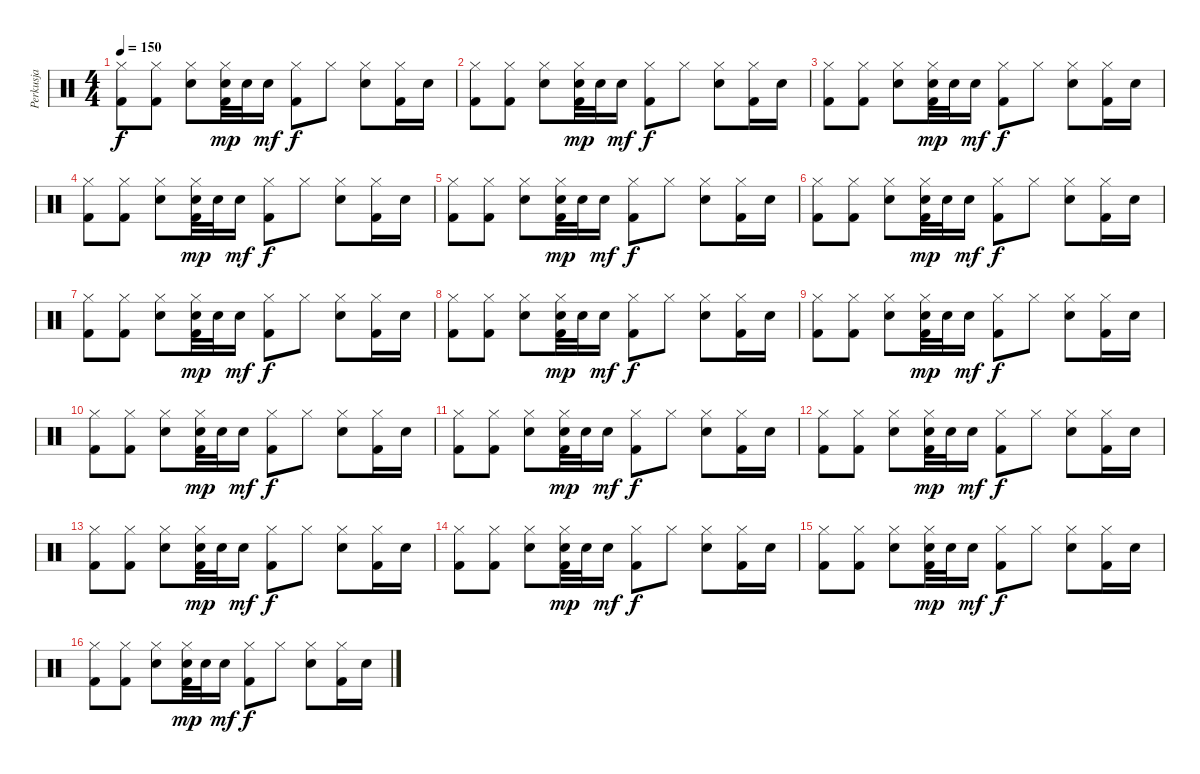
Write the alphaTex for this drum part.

\track ("Perkusja" "Perkusja") {instrument percussion}
\staff {score}
\articulation defaults
\ts (4 4)
\tempo 150
\clef neutral
\ks c
("Hi-Hat (closed)" "Kick (hit) 2").8{dy f} ("Hi-Hat (closed)" "Kick (hit) 2").8 ("Hi-Hat (closed)" "Electric Snare (hit)").8 ("Hi-Hat (closed)" "Electric Snare (hit)" "Kick (hit) 2").32{dy mp} "Electric Snare (hit)".32 "Electric Snare (hit)".16{dy mf} ("Hi-Hat (closed)" "Kick (hit) 2").8{dy f} "Hi-Hat (closed)".8 ("Hi-Hat (closed)" "Electric Snare (hit)").8 ("Hi-Hat (closed)" "Kick (hit) 2").16 "Electric Snare (hit)".16 |
("Hi-Hat (closed)" "Kick (hit) 2").8 ("Hi-Hat (closed)" "Kick (hit) 2").8 ("Hi-Hat (closed)" "Electric Snare (hit)").8 ("Hi-Hat (closed)" "Electric Snare (hit)" "Kick (hit) 2").32{dy mp} "Electric Snare (hit)".32 "Electric Snare (hit)".16{dy mf} ("Hi-Hat (closed)" "Kick (hit) 2").8{dy f} "Hi-Hat (closed)".8 ("Hi-Hat (closed)" "Electric Snare (hit)").8 ("Hi-Hat (closed)" "Kick (hit) 2").16 "Electric Snare (hit)".16 |
("Hi-Hat (closed)" "Kick (hit) 2").8 ("Hi-Hat (closed)" "Kick (hit) 2").8 ("Hi-Hat (closed)" "Electric Snare (hit)").8 ("Hi-Hat (closed)" "Electric Snare (hit)" "Kick (hit) 2").32{dy mp} "Electric Snare (hit)".32 "Electric Snare (hit)".16{dy mf} ("Hi-Hat (closed)" "Kick (hit) 2").8{dy f} "Hi-Hat (closed)".8 ("Hi-Hat (closed)" "Electric Snare (hit)").8 ("Hi-Hat (closed)" "Kick (hit) 2").16 "Electric Snare (hit)".16 |
("Hi-Hat (closed)" "Kick (hit) 2").8 ("Hi-Hat (closed)" "Kick (hit) 2").8 ("Hi-Hat (closed)" "Electric Snare (hit)").8 ("Hi-Hat (closed)" "Electric Snare (hit)" "Kick (hit) 2").32{dy mp} "Electric Snare (hit)".32 "Electric Snare (hit)".16{dy mf} ("Hi-Hat (closed)" "Kick (hit) 2").8{dy f} "Hi-Hat (closed)".8 ("Hi-Hat (closed)" "Electric Snare (hit)").8 ("Hi-Hat (closed)" "Kick (hit) 2").16 "Electric Snare (hit)".16 |
("Hi-Hat (closed)" "Kick (hit) 2").8 ("Hi-Hat (closed)" "Kick (hit) 2").8 ("Hi-Hat (closed)" "Electric Snare (hit)").8 ("Hi-Hat (closed)" "Electric Snare (hit)" "Kick (hit) 2").32{dy mp} "Electric Snare (hit)".32 "Electric Snare (hit)".16{dy mf} ("Hi-Hat (closed)" "Kick (hit) 2").8{dy f} "Hi-Hat (closed)".8 ("Hi-Hat (closed)" "Electric Snare (hit)").8 ("Hi-Hat (closed)" "Kick (hit) 2").16 "Electric Snare (hit)".16 |
("Hi-Hat (closed)" "Kick (hit) 2").8 ("Hi-Hat (closed)" "Kick (hit) 2").8 ("Hi-Hat (closed)" "Electric Snare (hit)").8 ("Hi-Hat (closed)" "Electric Snare (hit)" "Kick (hit) 2").32{dy mp} "Electric Snare (hit)".32 "Electric Snare (hit)".16{dy mf} ("Hi-Hat (closed)" "Kick (hit) 2").8{dy f} "Hi-Hat (closed)".8 ("Hi-Hat (closed)" "Electric Snare (hit)").8 ("Hi-Hat (closed)" "Kick (hit) 2").16 "Electric Snare (hit)".16 |
("Hi-Hat (closed)" "Kick (hit) 2").8 ("Hi-Hat (closed)" "Kick (hit) 2").8 ("Hi-Hat (closed)" "Electric Snare (hit)").8 ("Hi-Hat (closed)" "Electric Snare (hit)" "Kick (hit) 2").32{dy mp} "Electric Snare (hit)".32 "Electric Snare (hit)".16{dy mf} ("Hi-Hat (closed)" "Kick (hit) 2").8{dy f} "Hi-Hat (closed)".8 ("Hi-Hat (closed)" "Electric Snare (hit)").8 ("Hi-Hat (closed)" "Kick (hit) 2").16 "Electric Snare (hit)".16 |
("Hi-Hat (closed)" "Kick (hit) 2").8 ("Hi-Hat (closed)" "Kick (hit) 2").8 ("Hi-Hat (closed)" "Electric Snare (hit)").8 ("Hi-Hat (closed)" "Electric Snare (hit)" "Kick (hit) 2").32{dy mp} "Electric Snare (hit)".32 "Electric Snare (hit)".16{dy mf} ("Hi-Hat (closed)" "Kick (hit) 2").8{dy f} "Hi-Hat (closed)".8 ("Hi-Hat (closed)" "Electric Snare (hit)").8 ("Hi-Hat (closed)" "Kick (hit) 2").16 "Electric Snare (hit)".16 |
("Hi-Hat (closed)" "Kick (hit) 2").8 ("Hi-Hat (closed)" "Kick (hit) 2").8 ("Hi-Hat (closed)" "Electric Snare (hit)").8 ("Hi-Hat (closed)" "Electric Snare (hit)" "Kick (hit) 2").32{dy mp} "Electric Snare (hit)".32 "Electric Snare (hit)".16{dy mf} ("Hi-Hat (closed)" "Kick (hit) 2").8{dy f} "Hi-Hat (closed)".8 ("Hi-Hat (closed)" "Electric Snare (hit)").8 ("Hi-Hat (closed)" "Kick (hit) 2").16 "Electric Snare (hit)".16 |
("Hi-Hat (closed)" "Kick (hit) 2").8 ("Hi-Hat (closed)" "Kick (hit) 2").8 ("Hi-Hat (closed)" "Electric Snare (hit)").8 ("Hi-Hat (closed)" "Electric Snare (hit)" "Kick (hit) 2").32{dy mp} "Electric Snare (hit)".32 "Electric Snare (hit)".16{dy mf} ("Hi-Hat (closed)" "Kick (hit) 2").8{dy f} "Hi-Hat (closed)".8 ("Hi-Hat (closed)" "Electric Snare (hit)").8 ("Hi-Hat (closed)" "Kick (hit) 2").16 "Electric Snare (hit)".16 |
("Hi-Hat (closed)" "Kick (hit) 2").8 ("Hi-Hat (closed)" "Kick (hit) 2").8 ("Hi-Hat (closed)" "Electric Snare (hit)").8 ("Hi-Hat (closed)" "Electric Snare (hit)" "Kick (hit) 2").32{dy mp} "Electric Snare (hit)".32 "Electric Snare (hit)".16{dy mf} ("Hi-Hat (closed)" "Kick (hit) 2").8{dy f} "Hi-Hat (closed)".8 ("Hi-Hat (closed)" "Electric Snare (hit)").8 ("Hi-Hat (closed)" "Kick (hit) 2").16 "Electric Snare (hit)".16 |
("Hi-Hat (closed)" "Kick (hit) 2").8 ("Hi-Hat (closed)" "Kick (hit) 2").8 ("Hi-Hat (closed)" "Electric Snare (hit)").8 ("Hi-Hat (closed)" "Electric Snare (hit)" "Kick (hit) 2").32{dy mp} "Electric Snare (hit)".32 "Electric Snare (hit)".16{dy mf} ("Hi-Hat (closed)" "Kick (hit) 2").8{dy f} "Hi-Hat (closed)".8 ("Hi-Hat (closed)" "Electric Snare (hit)").8 ("Hi-Hat (closed)" "Kick (hit) 2").16 "Electric Snare (hit)".16 |
("Hi-Hat (closed)" "Kick (hit) 2").8 ("Hi-Hat (closed)" "Kick (hit) 2").8 ("Hi-Hat (closed)" "Electric Snare (hit)").8 ("Hi-Hat (closed)" "Electric Snare (hit)" "Kick (hit) 2").32{dy mp} "Electric Snare (hit)".32 "Electric Snare (hit)".16{dy mf} ("Hi-Hat (closed)" "Kick (hit) 2").8{dy f} "Hi-Hat (closed)".8 ("Hi-Hat (closed)" "Electric Snare (hit)").8 ("Hi-Hat (closed)" "Kick (hit) 2").16 "Electric Snare (hit)".16 |
("Hi-Hat (closed)" "Kick (hit) 2").8 ("Hi-Hat (closed)" "Kick (hit) 2").8 ("Hi-Hat (closed)" "Electric Snare (hit)").8 ("Hi-Hat (closed)" "Electric Snare (hit)" "Kick (hit) 2").32{dy mp} "Electric Snare (hit)".32 "Electric Snare (hit)".16{dy mf} ("Hi-Hat (closed)" "Kick (hit) 2").8{dy f} "Hi-Hat (closed)".8 ("Hi-Hat (closed)" "Electric Snare (hit)").8 ("Hi-Hat (closed)" "Kick (hit) 2").16 "Electric Snare (hit)".16 |
("Hi-Hat (closed)" "Kick (hit) 2").8 ("Hi-Hat (closed)" "Kick (hit) 2").8 ("Hi-Hat (closed)" "Electric Snare (hit)").8 ("Hi-Hat (closed)" "Electric Snare (hit)" "Kick (hit) 2").32{dy mp} "Electric Snare (hit)".32 "Electric Snare (hit)".16{dy mf} ("Hi-Hat (closed)" "Kick (hit) 2").8{dy f} "Hi-Hat (closed)".8 ("Hi-Hat (closed)" "Electric Snare (hit)").8 ("Hi-Hat (closed)" "Kick (hit) 2").16 "Electric Snare (hit)".16 |
("Hi-Hat (closed)" "Kick (hit) 2").8 ("Hi-Hat (closed)" "Kick (hit) 2").8 ("Hi-Hat (closed)" "Electric Snare (hit)").8 ("Hi-Hat (closed)" "Electric Snare (hit)" "Kick (hit) 2").32{dy mp} "Electric Snare (hit)".32 "Electric Snare (hit)".16{dy mf} ("Hi-Hat (closed)" "Kick (hit) 2").8{dy f} "Hi-Hat (closed)".8 ("Hi-Hat (closed)" "Electric Snare (hit)").8 ("Hi-Hat (closed)" "Kick (hit) 2").16 "Electric Snare (hit)".16
